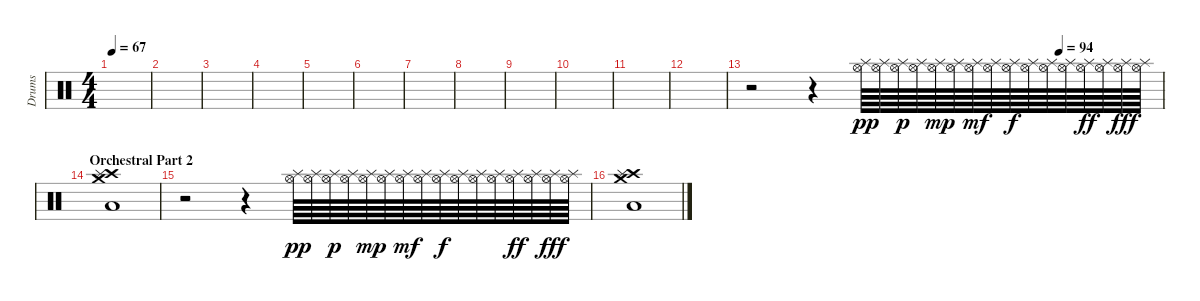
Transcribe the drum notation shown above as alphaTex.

\track ("Drums" "Drums") {instrument percussion}
\staff {score}
\articulation defaults
\ts (4 4)
\tempo 67
\clef neutral
\ks c
|
|
|
|
|
|
|
|
|
|
|
|
\tempo (94 0.75)
r.2 r.4 ("Splash (hit)" "Hi-Hat (open)").64{dy pp} ("Splash (hit)" "Hi-Hat (open)").64 ("Splash (hit)" "Hi-Hat (open)").64{dy p} ("Splash (hit)" "Hi-Hat (open)").64 ("Splash (hit)" "Hi-Hat (open)").64{dy mp} ("Splash (hit)" "Hi-Hat (open)").64 ("Splash (hit)" "Hi-Hat (open)").64{dy mf} ("Splash (hit)" "Hi-Hat (open)").64 ("Splash (hit)" "Hi-Hat (open)").64{dy f} ("Splash (hit)" "Hi-Hat (open)").64 ("Splash (hit)" "Hi-Hat (open)").64 ("Splash (hit)" "Hi-Hat (open)").64 ("Splash (hit)" "Hi-Hat (open)").64{dy ff} ("Splash (hit)" "Hi-Hat (open)").64 ("Splash (hit)" "Hi-Hat (open)").64{dy fff} ("Splash (hit)" "Hi-Hat (open)").64 |
\section ("" "Orchestral Part 2")
("Crash high (hit)" "Low Tom (hit)" "Splash (hit)" "Crash medium (hit)").1 |
r.2 r.4 ("Splash (hit)" "Hi-Hat (open)").64{dy pp} ("Splash (hit)" "Hi-Hat (open)").64 ("Splash (hit)" "Hi-Hat (open)").64{dy p} ("Splash (hit)" "Hi-Hat (open)").64 ("Splash (hit)" "Hi-Hat (open)").64{dy mp} ("Splash (hit)" "Hi-Hat (open)").64 ("Splash (hit)" "Hi-Hat (open)").64{dy mf} ("Splash (hit)" "Hi-Hat (open)").64 ("Splash (hit)" "Hi-Hat (open)").64{dy f} ("Splash (hit)" "Hi-Hat (open)").64 ("Splash (hit)" "Hi-Hat (open)").64 ("Splash (hit)" "Hi-Hat (open)").64 ("Splash (hit)" "Hi-Hat (open)").64{dy ff} ("Splash (hit)" "Hi-Hat (open)").64 ("Splash (hit)" "Hi-Hat (open)").64{dy fff} ("Splash (hit)" "Hi-Hat (open)").64 |
("Crash high (hit)" "Low Tom (hit)" "Splash (hit)" "Crash medium (hit)").1
